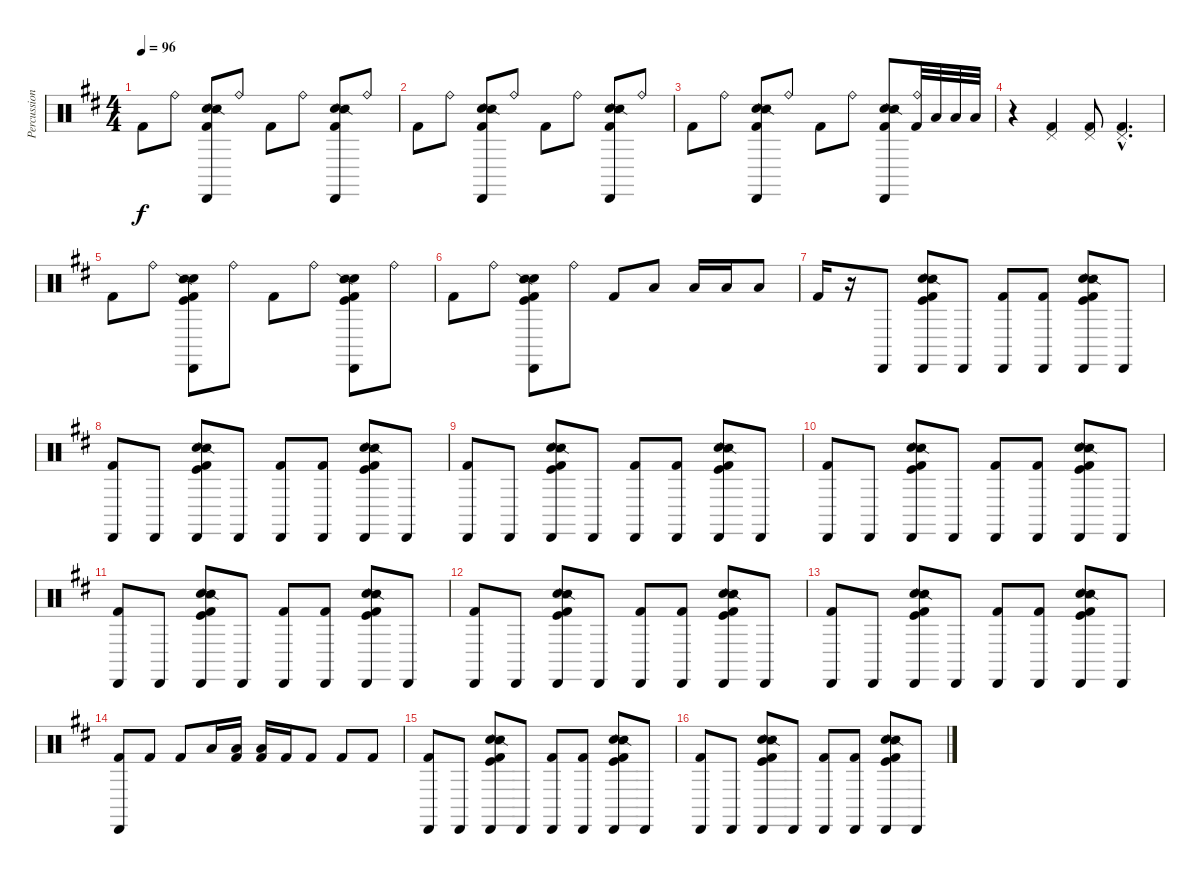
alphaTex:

\track ("Percussion" "Percussion") {instrument percussion}
\staff {score}
\articulation defaults
\ts (4 4)
\tempo 96
\clef neutral
\ks bminor "Kick (hit) 2".8{dy f} "Ride (bell)".8
("Hand Clap (hit)" "Snare (side stick) 2" "Cabasa (hit)" "Kick (hit) 2").8 "Ride (bell)".8 "Kick (hit) 2".8 "Ride (bell)".8 ("Hand Clap (hit)" "Snare (side stick) 2" "Cabasa (hit)" "Kick (hit) 2").8 "Ride (bell)".8 |
"Kick (hit) 2".8 "Ride (bell)".8 ("Hand Clap (hit)" "Snare (side stick) 2" "Kick (hit) 2" "Cabasa (hit)").8 "Ride (bell)".8 "Kick (hit) 2".8 "Ride (bell)".8 ("Hand Clap (hit)" "Snare (side stick) 2" "Kick (hit) 2" "Cabasa (hit)").8 "Ride (bell)".8 |
"Kick (hit) 2".8 "Ride (bell)".8 ("Hand Clap (hit)" "Snare (side stick) 2" "Kick (hit) 2" "Cabasa (hit)").8 "Ride (bell)".8 "Kick (hit) 2".8 "Ride (bell)".8 ("Hand Clap (hit)" "Snare (side stick) 2" "Kick (hit) 2" "Cabasa (hit)").8 ("Ride (bell)" "Kick (hit) 2").32 "Low Floor Tom (hit)".32 "Low Floor Tom (hit)".32 "Low Floor Tom (hit)".32 |
r.4 ("Kick (hit) 2" "Pedal Hi-Hat (hit)").4 ("Kick (hit) 2" "Pedal Hi-Hat (hit)").8 ("Kick (hit) 2"{hac} "Pedal Hi-Hat (hit)"{hac}).4{d} |
"Kick (hit) 2".8 "Ride (bell)".8 ("Hand Clap (hit)" "Snare (side stick) 2" "Kick (hit) 2" "Kick (hit)" "Cabasa (hit)").8 "Ride (bell)".8 "Kick (hit) 2".8 "Ride (bell)".8 ("Hand Clap (hit)" "Snare (side stick) 2" "Kick (hit) 2" "Kick (hit)" "Cabasa (hit)").8 "Ride (bell)".8 |
"Kick (hit) 2".8 "Ride (bell)".8 ("Hand Clap (hit)" "Snare (side stick) 2" "Kick (hit) 2" "Kick (hit)" "Cabasa (hit)").8 "Ride (bell)".8 "Kick (hit) 2".8 "Low Floor Tom (hit)".8 "Low Floor Tom (hit)".16 "Low Floor Tom (hit)".16 "Low Floor Tom (hit)".8 |
"Kick (hit) 2".16 r.16 "Cabasa (hit)".8 ("Hand Clap (hit)" "Snare (side stick) 2" "Kick (hit) 2" "Kick (hit)" "Cabasa (hit)").8 "Cabasa (hit)".8 ("Kick (hit) 2" "Cabasa (hit)").8 ("Kick (hit) 2" "Cabasa (hit)").8 ("Hand Clap (hit)" "Snare (side stick) 2" "Kick (hit) 2" "Kick (hit)" "Cabasa (hit)").8 "Cabasa (hit)".8 |
("Kick (hit) 2" "Cabasa (hit)").8 "Cabasa (hit)".8 ("Hand Clap (hit)" "Snare (side stick) 2" "Kick (hit) 2" "Kick (hit)" "Cabasa (hit)").8 "Cabasa (hit)".8 ("Kick (hit) 2" "Cabasa (hit)").8 ("Kick (hit) 2" "Cabasa (hit)").8 ("Hand Clap (hit)" "Snare (side stick) 2" "Kick (hit) 2" "Kick (hit)" "Cabasa (hit)").8 "Cabasa (hit)".8 |
("Kick (hit) 2" "Cabasa (hit)").8 "Cabasa (hit)".8 ("Hand Clap (hit)" "Snare (side stick) 2" "Kick (hit) 2" "Kick (hit)" "Cabasa (hit)").8 "Cabasa (hit)".8 ("Kick (hit) 2" "Cabasa (hit)").8 ("Kick (hit) 2" "Cabasa (hit)").8 ("Hand Clap (hit)" "Snare (side stick) 2" "Kick (hit) 2" "Kick (hit)" "Cabasa (hit)").8 "Cabasa (hit)".8 |
("Kick (hit) 2" "Cabasa (hit)").8 "Cabasa (hit)".8 ("Hand Clap (hit)" "Snare (side stick) 2" "Kick (hit) 2" "Kick (hit)" "Cabasa (hit)").8 "Cabasa (hit)".8 ("Kick (hit) 2" "Cabasa (hit)").8 ("Kick (hit) 2" "Cabasa (hit)").8 ("Hand Clap (hit)" "Snare (side stick) 2" "Kick (hit) 2" "Kick (hit)" "Cabasa (hit)").8 "Cabasa (hit)".8 |
("Kick (hit) 2" "Cabasa (hit)").8 "Cabasa (hit)".8 ("Hand Clap (hit)" "Snare (side stick) 2" "Kick (hit) 2" "Kick (hit)" "Cabasa (hit)").8 "Cabasa (hit)".8 ("Kick (hit) 2" "Cabasa (hit)").8 ("Kick (hit) 2" "Cabasa (hit)").8 ("Hand Clap (hit)" "Snare (side stick) 2" "Kick (hit) 2" "Kick (hit)" "Cabasa (hit)").8 "Cabasa (hit)".8 |
("Kick (hit) 2" "Cabasa (hit)").8 "Cabasa (hit)".8 ("Hand Clap (hit)" "Snare (side stick) 2" "Kick (hit) 2" "Kick (hit)" "Cabasa (hit)").8 "Cabasa (hit)".8 ("Kick (hit) 2" "Cabasa (hit)").8 ("Kick (hit) 2" "Cabasa (hit)").8 ("Hand Clap (hit)" "Snare (side stick) 2" "Kick (hit) 2" "Kick (hit)" "Cabasa (hit)").8 "Cabasa (hit)".8 |
("Kick (hit) 2" "Cabasa (hit)").8 "Cabasa (hit)".8 ("Hand Clap (hit)" "Snare (side stick) 2" "Kick (hit) 2" "Kick (hit)" "Cabasa (hit)").8 "Cabasa (hit)".8 ("Kick (hit) 2" "Cabasa (hit)").8 ("Kick (hit) 2" "Cabasa (hit)").8 ("Hand Clap (hit)" "Snare (side stick) 2" "Kick (hit) 2" "Kick (hit)" "Cabasa (hit)").8 "Cabasa (hit)".8 |
("Kick (hit) 2" "Cabasa (hit)").8 "Kick (hit) 2".8 "Kick (hit) 2".8 "Low Floor Tom (hit)".16 ("Kick (hit) 2" "Low Floor Tom (hit)").16 ("Kick (hit) 2" "Low Floor Tom (hit)").16 "Kick (hit) 2".16 "Kick (hit) 2".8 "Kick (hit) 2".8 "Kick (hit) 2".8 |
("Kick (hit) 2" "Cabasa (hit)").8 "Cabasa (hit)".8 ("Hand Clap (hit)" "Snare (side stick) 2" "Kick (hit) 2" "Kick (hit)" "Cabasa (hit)").8 "Cabasa (hit)".8 ("Kick (hit) 2" "Cabasa (hit)").8 ("Kick (hit) 2" "Cabasa (hit)").8 ("Hand Clap (hit)" "Snare (side stick) 2" "Kick (hit) 2" "Kick (hit)" "Cabasa (hit)").8 "Cabasa (hit)".8 |
("Kick (hit) 2" "Cabasa (hit)").8 "Cabasa (hit)".8 ("Hand Clap (hit)" "Snare (side stick) 2" "Kick (hit) 2" "Kick (hit)" "Cabasa (hit)").8 "Cabasa (hit)".8 ("Kick (hit) 2" "Cabasa (hit)").8 ("Kick (hit) 2" "Cabasa (hit)").8 ("Hand Clap (hit)" "Snare (side stick) 2" "Kick (hit) 2" "Kick (hit)" "Cabasa (hit)").8 "Cabasa (hit)".8
